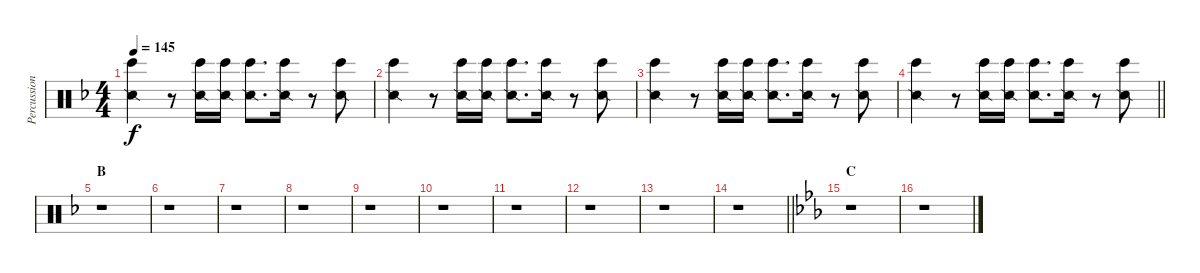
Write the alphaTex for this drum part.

\track ("Percussion" "Percussion") {instrument percussion}
\staff {score}
\articulation defaults
\ts (4 4)
\tempo 145
\clef neutral
\ks f
("Snare (side stick) 2" "Bongo High (hit)").4{dy f} r.8 ("Snare (side stick) 2" "Bongo High (hit)").16 ("Snare (side stick) 2" "Bongo High (hit)").16 ("Snare (side stick) 2" "Bongo High (hit)").8{d} ("Snare (side stick) 2" "Bongo High (hit)").16 r.8 ("Snare (side stick) 2" "Bongo High (hit)").8 |
("Snare (side stick) 2" "Bongo High (hit)").4 r.8 ("Snare (side stick) 2" "Bongo High (hit)").16 ("Snare (side stick) 2" "Bongo High (hit)").16 ("Snare (side stick) 2" "Bongo High (hit)").8{d} ("Snare (side stick) 2" "Bongo High (hit)").16 r.8 ("Snare (side stick) 2" "Bongo High (hit)").8 |
("Snare (side stick) 2" "Bongo High (hit)").4 r.8 ("Snare (side stick) 2" "Bongo High (hit)").16 ("Snare (side stick) 2" "Bongo High (hit)").16 ("Snare (side stick) 2" "Bongo High (hit)").8{d} ("Snare (side stick) 2" "Bongo High (hit)").16 r.8 ("Snare (side stick) 2" "Bongo High (hit)").8 |
\barLineRight lightlight
("Snare (side stick) 2" "Bongo High (hit)").4 r.8 ("Snare (side stick) 2" "Bongo High (hit)").16 ("Snare (side stick) 2" "Bongo High (hit)").16 ("Snare (side stick) 2" "Bongo High (hit)").8{d} ("Snare (side stick) 2" "Bongo High (hit)").16 r.8 ("Snare (side stick) 2" "Bongo High (hit)").8 |
\section ("" "B")
r.1 |
r.1 |
r.1 |
r.1 |
r.1 |
r.1 |
r.1 |
r.1 |
r.1 |
\barLineRight lightlight
r.1 |
\section ("" "C")
\ks eb
r.1 |
r.1
